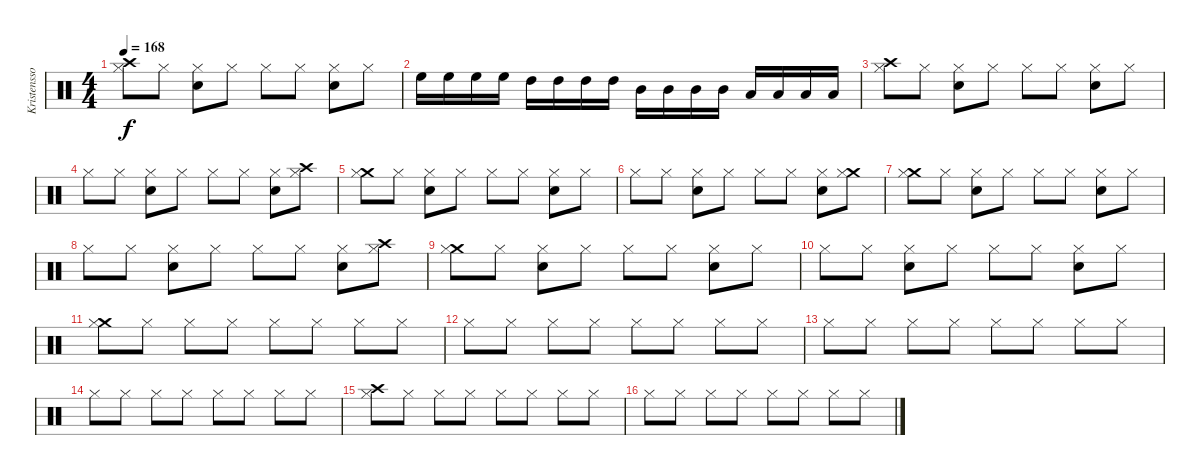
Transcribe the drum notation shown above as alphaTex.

\track ("Kristensson" "Kristensso") {instrument percussion}
\staff {score}
\articulation defaults
\ts (4 4)
\tempo 168
\clef neutral
\ks c
("Crash high (hit)" "Hi-Hat (closed)").8{dy f} "Hi-Hat (closed)".8 ("Snare (hit) 2" "Hi-Hat (closed)").8 "Hi-Hat (closed)".8 "Hi-Hat (closed)".8 "Hi-Hat (closed)".8 ("Snare (hit) 2" "Hi-Hat (closed)").8 "Hi-Hat (closed)".8 |
"High Floor Tom (hit)".16 "High Floor Tom (hit)".16 "High Floor Tom (hit)".16 "High Floor Tom (hit)".16 "High Tom (hit)".16 "High Tom (hit)".16 "High Tom (hit)".16 "High Tom (hit)".16 "Mid Tom (hit)".16 "Mid Tom (hit)".16 "Mid Tom (hit)".16 "Mid Tom (hit)".16 "Low Tom (hit)".16 "Low Tom (hit)".16 "Low Tom (hit)".16 "Low Tom (hit)".16 |
("Crash high (hit)" "Hi-Hat (closed)").8 "Hi-Hat (closed)".8 ("Snare (hit) 2" "Hi-Hat (closed)").8 "Hi-Hat (closed)".8 "Hi-Hat (closed)".8 "Hi-Hat (closed)".8 ("Snare (hit) 2" "Hi-Hat (closed)").8 "Hi-Hat (closed)".8 |
"Hi-Hat (closed)".8 "Hi-Hat (closed)".8 ("Snare (hit) 2" "Hi-Hat (closed)").8 "Hi-Hat (closed)".8 "Hi-Hat (closed)".8 "Hi-Hat (closed)".8 ("Snare (hit) 2" "Hi-Hat (closed)").8 ("Crash high (hit)" "Hi-Hat (closed)").8 |
("Crash medium (hit)" "Hi-Hat (closed)").8 "Hi-Hat (closed)".8 ("Snare (hit) 2" "Hi-Hat (closed)").8 "Hi-Hat (closed)".8 "Hi-Hat (closed)".8 "Hi-Hat (closed)".8 ("Snare (hit) 2" "Hi-Hat (closed)").8 "Hi-Hat (closed)".8 |
"Hi-Hat (closed)".8 "Hi-Hat (closed)".8 ("Snare (hit) 2" "Hi-Hat (closed)").8 "Hi-Hat (closed)".8 "Hi-Hat (closed)".8 "Hi-Hat (closed)".8 ("Snare (hit) 2" "Hi-Hat (closed)").8 ("Crash medium (hit)" "Hi-Hat (closed)").8 |
("Crash medium (hit)" "Hi-Hat (closed)").8 "Hi-Hat (closed)".8 ("Snare (hit) 2" "Hi-Hat (closed)").8 "Hi-Hat (closed)".8 "Hi-Hat (closed)".8 "Hi-Hat (closed)".8 ("Snare (hit) 2" "Hi-Hat (closed)").8 "Hi-Hat (closed)".8 |
"Hi-Hat (closed)".8 "Hi-Hat (closed)".8 ("Snare (hit) 2" "Hi-Hat (closed)").8 "Hi-Hat (closed)".8 "Hi-Hat (closed)".8 "Hi-Hat (closed)".8 ("Snare (hit) 2" "Hi-Hat (closed)").8 ("Crash high (hit)" "Hi-Hat (closed)").8 |
("Crash medium (hit)" "Hi-Hat (closed)").8 "Hi-Hat (closed)".8 ("Snare (hit) 2" "Hi-Hat (closed)").8 "Hi-Hat (closed)".8 "Hi-Hat (closed)".8 "Hi-Hat (closed)".8 ("Snare (hit) 2" "Hi-Hat (closed)").8 "Hi-Hat (closed)".8 |
"Hi-Hat (closed)".8 "Hi-Hat (closed)".8 ("Snare (hit) 2" "Hi-Hat (closed)").8 "Hi-Hat (closed)".8 "Hi-Hat (closed)".8 "Hi-Hat (closed)".8 ("Snare (hit) 2" "Hi-Hat (closed)").8 "Hi-Hat (closed)".8 |
("Crash medium (hit)" "Hi-Hat (closed)").8 "Hi-Hat (closed)".8 "Hi-Hat (closed)".8 "Hi-Hat (closed)".8 "Hi-Hat (closed)".8 "Hi-Hat (closed)".8 "Hi-Hat (closed)".8 "Hi-Hat (closed)".8 |
"Hi-Hat (closed)".8 "Hi-Hat (closed)".8 "Hi-Hat (closed)".8 "Hi-Hat (closed)".8 "Hi-Hat (closed)".8 "Hi-Hat (closed)".8 "Hi-Hat (closed)".8 "Hi-Hat (closed)".8 |
"Hi-Hat (closed)".8 "Hi-Hat (closed)".8 "Hi-Hat (closed)".8 "Hi-Hat (closed)".8 "Hi-Hat (closed)".8 "Hi-Hat (closed)".8 "Hi-Hat (closed)".8 "Hi-Hat (closed)".8 |
"Hi-Hat (closed)".8 "Hi-Hat (closed)".8 "Hi-Hat (closed)".8 "Hi-Hat (closed)".8 "Hi-Hat (closed)".8 "Hi-Hat (closed)".8 "Hi-Hat (closed)".8 "Hi-Hat (closed)".8 |
("Crash high (hit)" "Hi-Hat (closed)").8 "Hi-Hat (closed)".8 "Hi-Hat (closed)".8 "Hi-Hat (closed)".8 "Hi-Hat (closed)".8 "Hi-Hat (closed)".8 "Hi-Hat (closed)".8 "Hi-Hat (closed)".8 |
"Hi-Hat (closed)".8 "Hi-Hat (closed)".8 "Hi-Hat (closed)".8 "Hi-Hat (closed)".8 "Hi-Hat (closed)".8 "Hi-Hat (closed)".8 "Hi-Hat (closed)".8 "Hi-Hat (closed)".8
